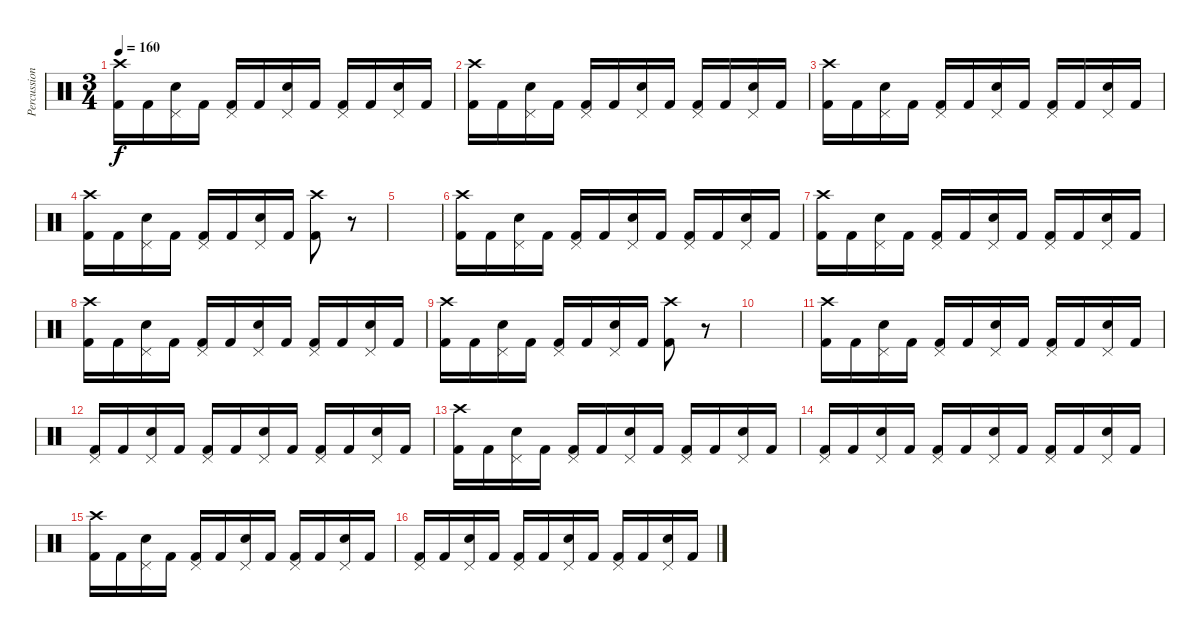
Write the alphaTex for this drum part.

\track ("Percussion" "Percussion") {instrument percussion}
\staff {score}
\articulation defaults
\ts (3 4)
\tempo 160
\clef neutral
\ks c
("Crash high (hit)" "Kick (hit) 2").16{dy f} "Kick (hit) 2".16 ("Pedal Hi-Hat (hit)" "Snare (hit) 2").16 "Kick (hit) 2".16 ("Pedal Hi-Hat (hit)" "Kick (hit) 2").16 "Kick (hit) 2".16 ("Pedal Hi-Hat (hit)" "Snare (hit) 2").16 "Kick (hit) 2".16 ("Pedal Hi-Hat (hit)" "Kick (hit) 2").16 "Kick (hit) 2".16 ("Pedal Hi-Hat (hit)" "Snare (hit) 2").16 "Kick (hit) 2".16 |
("Crash high (hit)" "Kick (hit) 2").16 "Kick (hit) 2".16 ("Pedal Hi-Hat (hit)" "Snare (hit) 2").16 "Kick (hit) 2".16 ("Pedal Hi-Hat (hit)" "Kick (hit) 2").16 "Kick (hit) 2".16 ("Pedal Hi-Hat (hit)" "Snare (hit) 2").16 "Kick (hit) 2".16 ("Pedal Hi-Hat (hit)" "Kick (hit) 2").16 "Kick (hit) 2".16 ("Pedal Hi-Hat (hit)" "Snare (hit) 2").16 "Kick (hit) 2".16 |
("Crash high (hit)" "Kick (hit) 2").16 "Kick (hit) 2".16 ("Pedal Hi-Hat (hit)" "Snare (hit) 2").16 "Kick (hit) 2".16 ("Pedal Hi-Hat (hit)" "Kick (hit) 2").16 "Kick (hit) 2".16 ("Pedal Hi-Hat (hit)" "Snare (hit) 2").16 "Kick (hit) 2".16 ("Pedal Hi-Hat (hit)" "Kick (hit) 2").16 "Kick (hit) 2".16 ("Pedal Hi-Hat (hit)" "Snare (hit) 2").16 "Kick (hit) 2".16 |
("Crash high (hit)" "Kick (hit) 2").16 "Kick (hit) 2".16 ("Pedal Hi-Hat (hit)" "Snare (hit) 2").16 "Kick (hit) 2".16 ("Pedal Hi-Hat (hit)" "Kick (hit) 2").16 "Kick (hit) 2".16 ("Pedal Hi-Hat (hit)" "Snare (hit) 2").16 "Kick (hit) 2".16 ("Crash high (hit)" "Kick (hit) 2").8 r.8 |
|
("Crash high (hit)" "Kick (hit) 2").16 "Kick (hit) 2".16 ("Pedal Hi-Hat (hit)" "Snare (hit) 2").16 "Kick (hit) 2".16 ("Pedal Hi-Hat (hit)" "Kick (hit) 2").16 "Kick (hit) 2".16 ("Pedal Hi-Hat (hit)" "Snare (hit) 2").16 "Kick (hit) 2".16 ("Pedal Hi-Hat (hit)" "Kick (hit) 2").16 "Kick (hit) 2".16 ("Pedal Hi-Hat (hit)" "Snare (hit) 2").16 "Kick (hit) 2".16 |
("Crash high (hit)" "Kick (hit) 2").16 "Kick (hit) 2".16 ("Pedal Hi-Hat (hit)" "Snare (hit) 2").16 "Kick (hit) 2".16 ("Pedal Hi-Hat (hit)" "Kick (hit) 2").16 "Kick (hit) 2".16 ("Pedal Hi-Hat (hit)" "Snare (hit) 2").16 "Kick (hit) 2".16 ("Pedal Hi-Hat (hit)" "Kick (hit) 2").16 "Kick (hit) 2".16 ("Pedal Hi-Hat (hit)" "Snare (hit) 2").16 "Kick (hit) 2".16 |
("Crash high (hit)" "Kick (hit) 2").16 "Kick (hit) 2".16 ("Pedal Hi-Hat (hit)" "Snare (hit) 2").16 "Kick (hit) 2".16 ("Pedal Hi-Hat (hit)" "Kick (hit) 2").16 "Kick (hit) 2".16 ("Pedal Hi-Hat (hit)" "Snare (hit) 2").16 "Kick (hit) 2".16 ("Pedal Hi-Hat (hit)" "Kick (hit) 2").16 "Kick (hit) 2".16 ("Pedal Hi-Hat (hit)" "Snare (hit) 2").16 "Kick (hit) 2".16 |
("Crash high (hit)" "Kick (hit) 2").16 "Kick (hit) 2".16 ("Pedal Hi-Hat (hit)" "Snare (hit) 2").16 "Kick (hit) 2".16 ("Pedal Hi-Hat (hit)" "Kick (hit) 2").16 "Kick (hit) 2".16 ("Pedal Hi-Hat (hit)" "Snare (hit) 2").16 "Kick (hit) 2".16 ("Crash high (hit)" "Kick (hit) 2").8 r.8 |
|
("Crash high (hit)" "Kick (hit) 2").16 "Kick (hit) 2".16 ("Pedal Hi-Hat (hit)" "Snare (hit) 2").16 "Kick (hit) 2".16 ("Pedal Hi-Hat (hit)" "Kick (hit) 2").16 "Kick (hit) 2".16 ("Pedal Hi-Hat (hit)" "Snare (hit) 2").16 "Kick (hit) 2".16 ("Pedal Hi-Hat (hit)" "Kick (hit) 2").16 "Kick (hit) 2".16 ("Pedal Hi-Hat (hit)" "Snare (hit) 2").16 "Kick (hit) 2".16 |
("Pedal Hi-Hat (hit)" "Kick (hit) 2").16 "Kick (hit) 2".16 ("Pedal Hi-Hat (hit)" "Snare (hit) 2").16 "Kick (hit) 2".16 ("Pedal Hi-Hat (hit)" "Kick (hit) 2").16 "Kick (hit) 2".16 ("Pedal Hi-Hat (hit)" "Snare (hit) 2").16 "Kick (hit) 2".16 ("Pedal Hi-Hat (hit)" "Kick (hit) 2").16 "Kick (hit) 2".16 ("Pedal Hi-Hat (hit)" "Snare (hit) 2").16 "Kick (hit) 2".16 |
("Crash high (hit)" "Kick (hit) 2").16 "Kick (hit) 2".16 ("Pedal Hi-Hat (hit)" "Snare (hit) 2").16 "Kick (hit) 2".16 ("Pedal Hi-Hat (hit)" "Kick (hit) 2").16 "Kick (hit) 2".16 ("Pedal Hi-Hat (hit)" "Snare (hit) 2").16 "Kick (hit) 2".16 ("Pedal Hi-Hat (hit)" "Kick (hit) 2").16 "Kick (hit) 2".16 ("Pedal Hi-Hat (hit)" "Snare (hit) 2").16 "Kick (hit) 2".16 |
("Pedal Hi-Hat (hit)" "Kick (hit) 2").16 "Kick (hit) 2".16 ("Pedal Hi-Hat (hit)" "Snare (hit) 2").16 "Kick (hit) 2".16 ("Pedal Hi-Hat (hit)" "Kick (hit) 2").16 "Kick (hit) 2".16 ("Pedal Hi-Hat (hit)" "Snare (hit) 2").16 "Kick (hit) 2".16 ("Pedal Hi-Hat (hit)" "Kick (hit) 2").16 "Kick (hit) 2".16 ("Pedal Hi-Hat (hit)" "Snare (hit) 2").16 "Kick (hit) 2".16 |
("Crash high (hit)" "Kick (hit) 2").16 "Kick (hit) 2".16 ("Pedal Hi-Hat (hit)" "Snare (hit) 2").16 "Kick (hit) 2".16 ("Pedal Hi-Hat (hit)" "Kick (hit) 2").16 "Kick (hit) 2".16 ("Pedal Hi-Hat (hit)" "Snare (hit) 2").16 "Kick (hit) 2".16 ("Pedal Hi-Hat (hit)" "Kick (hit) 2").16 "Kick (hit) 2".16 ("Pedal Hi-Hat (hit)" "Snare (hit) 2").16 "Kick (hit) 2".16 |
("Pedal Hi-Hat (hit)" "Kick (hit) 2").16 "Kick (hit) 2".16 ("Pedal Hi-Hat (hit)" "Snare (hit) 2").16 "Kick (hit) 2".16 ("Pedal Hi-Hat (hit)" "Kick (hit) 2").16 "Kick (hit) 2".16 ("Pedal Hi-Hat (hit)" "Snare (hit) 2").16 "Kick (hit) 2".16 ("Pedal Hi-Hat (hit)" "Kick (hit) 2").16 "Kick (hit) 2".16 ("Pedal Hi-Hat (hit)" "Snare (hit) 2").16 "Kick (hit) 2".16
